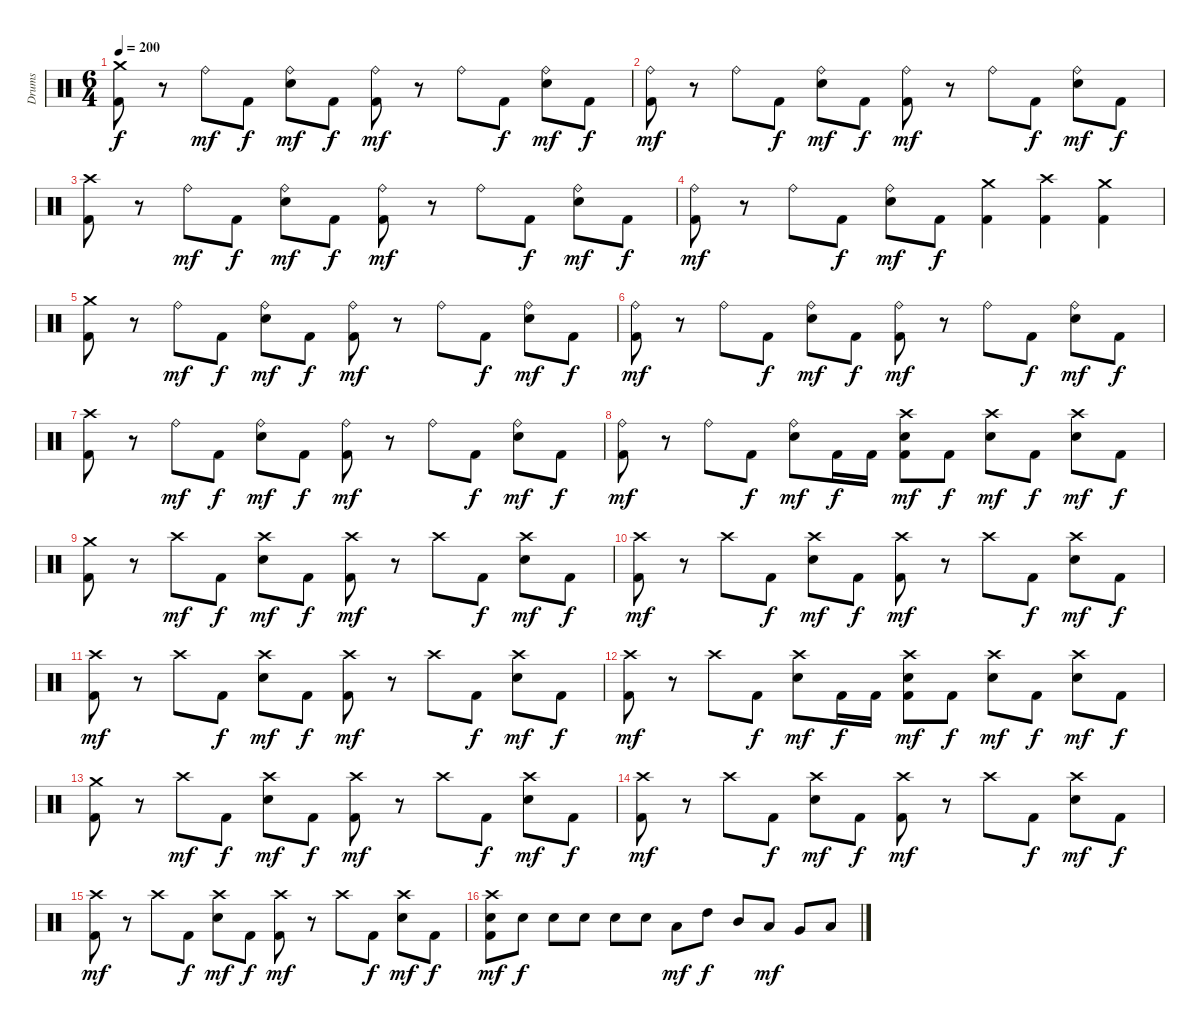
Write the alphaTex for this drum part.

\track ("Drums" "Drums") {instrument percussion}
\staff {score}
\articulation defaults
\ts (6 4)
\tempo 200
\clef neutral
\ks c
("Crash medium (hit)" "Kick (hit) 2").8{dy f} r.8 "Ride (bell)".8{dy mf} "Kick (hit) 2".8{dy f} ("Ride (bell)" "Snare (hit) 2").8{dy mf} "Kick (hit) 2".8{dy f} ("Ride (bell)" "Kick (hit) 2").8{dy mf} r.8 "Ride (bell)".8 "Kick (hit) 2".8{dy f} ("Ride (bell)" "Snare (hit) 2").8{dy mf} "Kick (hit) 2".8{dy f} |
("Ride (bell)" "Kick (hit) 2").8{dy mf} r.8 "Ride (bell)".8 "Kick (hit) 2".8{dy f} ("Ride (bell)" "Snare (hit) 2").8{dy mf} "Kick (hit) 2".8{dy f} ("Ride (bell)" "Kick (hit) 2").8{dy mf} r.8 "Ride (bell)".8 "Kick (hit) 2".8{dy f} ("Ride (bell)" "Snare (hit) 2").8{dy mf} "Kick (hit) 2".8{dy f} |
("Crash high (hit)" "Kick (hit) 2").8 r.8 "Ride (bell)".8{dy mf} "Kick (hit) 2".8{dy f} ("Ride (bell)" "Snare (hit) 2").8{dy mf} "Kick (hit) 2".8{dy f} ("Ride (bell)" "Kick (hit) 2").8{dy mf} r.8 "Ride (bell)".8 "Kick (hit) 2".8{dy f} ("Ride (bell)" "Snare (hit) 2").8{dy mf} "Kick (hit) 2".8{dy f} |
("Ride (bell)" "Kick (hit) 2").8{dy mf} r.8 "Ride (bell)".8 "Kick (hit) 2".8{dy f} ("Ride (bell)" "Snare (hit) 2").8{dy mf} "Kick (hit) 2".8{dy f} ("Crash medium (hit)" "Kick (hit) 2").4 ("Crash high (hit)" "Kick (hit) 2").4 ("Crash medium (hit)" "Kick (hit) 2").4 |
("Crash medium (hit)" "Kick (hit) 2").8 r.8 "Ride (bell)".8{dy mf} "Kick (hit) 2".8{dy f} ("Ride (bell)" "Snare (hit) 2").8{dy mf} "Kick (hit) 2".8{dy f} ("Ride (bell)" "Kick (hit) 2").8{dy mf} r.8 "Ride (bell)".8 "Kick (hit) 2".8{dy f} ("Ride (bell)" "Snare (hit) 2").8{dy mf} "Kick (hit) 2".8{dy f} |
("Ride (bell)" "Kick (hit) 2").8{dy mf} r.8 "Ride (bell)".8 "Kick (hit) 2".8{dy f} ("Ride (bell)" "Snare (hit) 2").8{dy mf} "Kick (hit) 2".8{dy f} ("Ride (bell)" "Kick (hit) 2").8{dy mf} r.8 "Ride (bell)".8 "Kick (hit) 2".8{dy f} ("Ride (bell)" "Snare (hit) 2").8{dy mf} "Kick (hit) 2".8{dy f} |
("Crash high (hit)" "Kick (hit) 2").8 r.8 "Ride (bell)".8{dy mf} "Kick (hit) 2".8{dy f} ("Ride (bell)" "Snare (hit) 2").8{dy mf} "Kick (hit) 2".8{dy f} ("Ride (bell)" "Kick (hit) 2").8{dy mf} r.8 "Ride (bell)".8 "Kick (hit) 2".8{dy f} ("Ride (bell)" "Snare (hit) 2").8{dy mf} "Kick (hit) 2".8{dy f} |
("Ride (bell)" "Kick (hit) 2").8{dy mf} r.8 "Ride (bell)".8 "Kick (hit) 2".8{dy f} ("Ride (bell)" "Snare (hit) 2").8{dy mf} "Kick (hit) 2".16{dy f} "Kick (hit) 2".16 ("Crash high (hit)" "Snare (hit) 2" "Kick (hit) 2").8{dy mf} "Kick (hit) 2".8{dy f} ("Crash high (hit)" "Snare (hit) 2").8{dy mf} "Kick (hit) 2".8{dy f} ("Crash high (hit)" "Snare (hit) 2").8{dy mf} "Kick (hit) 2".8{dy f} |
("Crash medium (hit)" "Kick (hit) 2").8 r.8 "Crash high (hit)".8{dy mf} "Kick (hit) 2".8{dy f} ("Crash high (hit)" "Snare (hit) 2").8{dy mf} "Kick (hit) 2".8{dy f} ("Crash high (hit)" "Kick (hit) 2").8{dy mf} r.8 "Crash high (hit)".8 "Kick (hit) 2".8{dy f} ("Crash high (hit)" "Snare (hit) 2").8{dy mf} "Kick (hit) 2".8{dy f} |
("Crash high (hit)" "Kick (hit) 2").8{dy mf} r.8 "Crash high (hit)".8 "Kick (hit) 2".8{dy f} ("Crash high (hit)" "Snare (hit) 2").8{dy mf} "Kick (hit) 2".8{dy f} ("Crash high (hit)" "Kick (hit) 2").8{dy mf} r.8 "Crash high (hit)".8 "Kick (hit) 2".8{dy f} ("Crash high (hit)" "Snare (hit) 2").8{dy mf} "Kick (hit) 2".8{dy f} |
("Crash high (hit)" "Kick (hit) 2").8{dy mf} r.8 "Crash high (hit)".8 "Kick (hit) 2".8{dy f} ("Crash high (hit)" "Snare (hit) 2").8{dy mf} "Kick (hit) 2".8{dy f} ("Crash high (hit)" "Kick (hit) 2").8{dy mf} r.8 "Crash high (hit)".8 "Kick (hit) 2".8{dy f} ("Crash high (hit)" "Snare (hit) 2").8{dy mf} "Kick (hit) 2".8{dy f} |
("Crash high (hit)" "Kick (hit) 2").8{dy mf} r.8 "Crash high (hit)".8 "Kick (hit) 2".8{dy f} ("Crash high (hit)" "Snare (hit) 2").8{dy mf} "Kick (hit) 2".16{dy f} "Kick (hit) 2".16 ("Crash high (hit)" "Snare (hit) 2" "Kick (hit) 2").8{dy mf} "Kick (hit) 2".8{dy f} ("Crash high (hit)" "Snare (hit) 2").8{dy mf} "Kick (hit) 2".8{dy f} ("Crash high (hit)" "Snare (hit) 2").8{dy mf} "Kick (hit) 2".8{dy f} |
("Crash medium (hit)" "Kick (hit) 2").8 r.8 "Crash high (hit)".8{dy mf} "Kick (hit) 2".8{dy f} ("Crash high (hit)" "Snare (hit) 2").8{dy mf} "Kick (hit) 2".8{dy f} ("Crash high (hit)" "Kick (hit) 2").8{dy mf} r.8 "Crash high (hit)".8 "Kick (hit) 2".8{dy f} ("Crash high (hit)" "Snare (hit) 2").8{dy mf} "Kick (hit) 2".8{dy f} |
("Crash high (hit)" "Kick (hit) 2").8{dy mf} r.8 "Crash high (hit)".8 "Kick (hit) 2".8{dy f} ("Crash high (hit)" "Snare (hit) 2").8{dy mf} "Kick (hit) 2".8{dy f} ("Crash high (hit)" "Kick (hit) 2").8{dy mf} r.8 "Crash high (hit)".8 "Kick (hit) 2".8{dy f} ("Crash high (hit)" "Snare (hit) 2").8{dy mf} "Kick (hit) 2".8{dy f} |
("Crash high (hit)" "Kick (hit) 2").8{dy mf} r.8 "Crash high (hit)".8 "Kick (hit) 2".8{dy f} ("Crash high (hit)" "Snare (hit) 2").8{dy mf} "Kick (hit) 2".8{dy f} ("Crash high (hit)" "Kick (hit) 2").8{dy mf} r.8 "Crash high (hit)".8 "Kick (hit) 2".8{dy f} ("Crash high (hit)" "Snare (hit) 2").8{dy mf} "Kick (hit) 2".8{dy f} |
("Crash high (hit)" "Snare (hit) 2" "Kick (hit) 2").8{dy mf} "Snare (hit) 2".8{dy f} "Snare (hit) 2".8 "Snare (hit) 2".8 "Snare (hit) 2".8 "Snare (hit) 2".8 "Low Floor Tom (hit)".8{dy mf} "High Tom (hit)".8{dy f} "Mid Tom (hit)".8 "Low Tom (hit)".8{dy mf} "Very Low Tom (hit)".8 "Low Floor Tom (hit)".8
